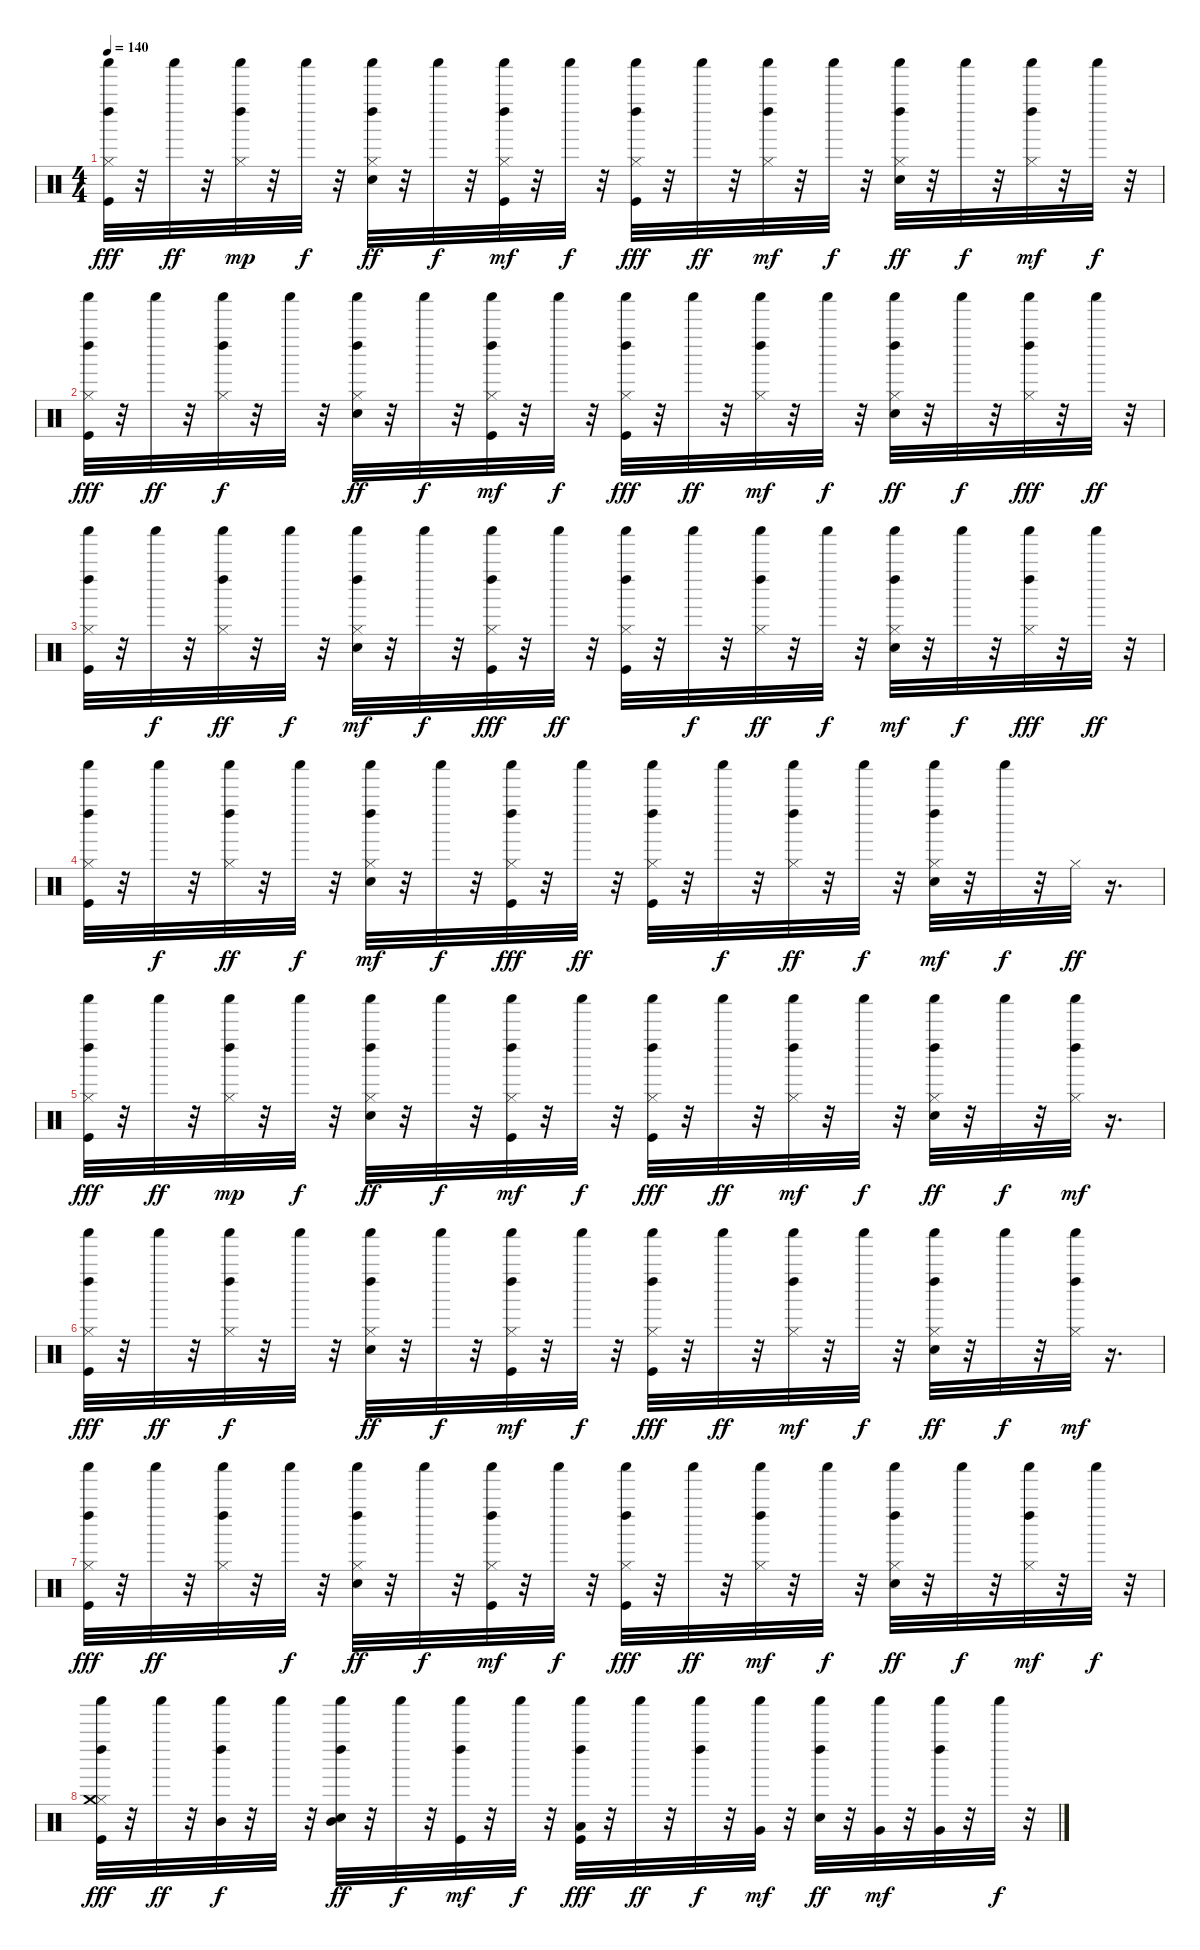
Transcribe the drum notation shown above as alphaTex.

\track "" {instrument percussion}
\staff {score}
\articulation defaults
\ts (4 4)
\tempo 140
\clef neutral
\ks c
("Kick (hit)" "Hi-Hat (closed)" "Left Maraca (hit)" "Shaker (hit)").32{dy fff} r.32 "Shaker (hit)".32{dy ff} r.32 ("Hi-Hat (closed)" "Left Maraca (hit)" "Shaker (hit)").32{dy mp} r.32 "Shaker (hit)".32{dy f} r.32 ("Electric Snare (hit)" "Hi-Hat (closed)" "Left Maraca (hit)" "Shaker (hit)").32{dy ff} r.32 "Shaker (hit)".32{dy f} r.32 ("Kick (hit)" "Hi-Hat (closed)" "Left Maraca (hit)" "Shaker (hit)").32{dy mf} r.32 "Shaker (hit)".32{dy f} r.32 ("Kick (hit)" "Hi-Hat (closed)" "Left Maraca (hit)" "Shaker (hit)").32{dy fff} r.32 "Shaker (hit)".32{dy ff} r.32 ("Hi-Hat (closed)" "Left Maraca (hit)" "Shaker (hit)").32{dy mf} r.32 "Shaker (hit)".32{dy f} r.32 ("Electric Snare (hit)" "Hi-Hat (closed)" "Left Maraca (hit)" "Shaker (hit)").32{dy ff} r.32 "Shaker (hit)".32{dy f} r.32 ("Hi-Hat (closed)" "Left Maraca (hit)" "Shaker (hit)").32{dy mf} r.32 "Shaker (hit)".32{dy f} r.32 |
("Kick (hit)" "Hi-Hat (closed)" "Left Maraca (hit)" "Shaker (hit)").32{dy fff} r.32 "Shaker (hit)".32{dy ff} r.32 ("Hi-Hat (closed)" "Left Maraca (hit)" "Shaker (hit)").32{dy f} r.32 "Shaker (hit)".32 r.32 ("Electric Snare (hit)" "Hi-Hat (closed)" "Left Maraca (hit)" "Shaker (hit)").32{dy ff} r.32 "Shaker (hit)".32{dy f} r.32 ("Kick (hit)" "Hi-Hat (closed)" "Left Maraca (hit)" "Shaker (hit)").32{dy mf} r.32 "Shaker (hit)".32{dy f} r.32 ("Kick (hit)" "Hi-Hat (closed)" "Left Maraca (hit)" "Shaker (hit)").32{dy fff} r.32 "Shaker (hit)".32{dy ff} r.32 ("Hi-Hat (closed)" "Left Maraca (hit)" "Shaker (hit)").32{dy mf} r.32 "Shaker (hit)".32{dy f} r.32 ("Electric Snare (hit)" "Hi-Hat (closed)" "Left Maraca (hit)" "Shaker (hit)").32{dy ff} r.32 "Shaker (hit)".32{dy f} r.32 ("Hi-Hat (closed)" "Left Maraca (hit)" "Shaker (hit)").32{dy fff} r.32 "Shaker (hit)".32{dy ff} r.32 |
("Kick (hit)" "Hi-Hat (closed)" "Left Maraca (hit)" "Shaker (hit)").32 r.32 "Shaker (hit)".32{dy f} r.32 ("Hi-Hat (closed)" "Left Maraca (hit)" "Shaker (hit)").32{dy ff} r.32 "Shaker (hit)".32{dy f} r.32 ("Electric Snare (hit)" "Hi-Hat (closed)" "Left Maraca (hit)" "Shaker (hit)").32{dy mf} r.32 "Shaker (hit)".32{dy f} r.32 ("Kick (hit)" "Hi-Hat (closed)" "Left Maraca (hit)" "Shaker (hit)").32{dy fff} r.32 "Shaker (hit)".32{dy ff} r.32 ("Kick (hit)" "Hi-Hat (closed)" "Left Maraca (hit)" "Shaker (hit)").32 r.32 "Shaker (hit)".32{dy f} r.32 ("Hi-Hat (closed)" "Left Maraca (hit)" "Shaker (hit)").32{dy ff} r.32 "Shaker (hit)".32{dy f} r.32 ("Electric Snare (hit)" "Hi-Hat (closed)" "Left Maraca (hit)" "Shaker (hit)").32{dy mf} r.32 "Shaker (hit)".32{dy f} r.32 ("Hi-Hat (closed)" "Left Maraca (hit)" "Shaker (hit)").32{dy fff} r.32 "Shaker (hit)".32{dy ff} r.32 |
("Kick (hit)" "Hi-Hat (closed)" "Left Maraca (hit)" "Shaker (hit)").32 r.32 "Shaker (hit)".32{dy f} r.32 ("Hi-Hat (closed)" "Left Maraca (hit)" "Shaker (hit)").32{dy ff} r.32 "Shaker (hit)".32{dy f} r.32 ("Electric Snare (hit)" "Hi-Hat (closed)" "Left Maraca (hit)" "Shaker (hit)").32{dy mf} r.32 "Shaker (hit)".32{dy f} r.32 ("Kick (hit)" "Hi-Hat (closed)" "Left Maraca (hit)" "Shaker (hit)").32{dy fff} r.32 "Shaker (hit)".32{dy ff} r.32 ("Kick (hit)" "Hi-Hat (closed)" "Left Maraca (hit)" "Shaker (hit)").32 r.32 "Shaker (hit)".32{dy f} r.32 ("Hi-Hat (closed)" "Left Maraca (hit)" "Shaker (hit)").32{dy ff} r.32 "Shaker (hit)".32{dy f} r.32 ("Electric Snare (hit)" "Hi-Hat (closed)" "Left Maraca (hit)" "Shaker (hit)").32{dy mf} r.32 "Shaker (hit)".32{dy f} r.32 "Hi-Hat (closed)".32{dy ff} r.16{d} |
("Kick (hit)" "Hi-Hat (closed)" "Left Maraca (hit)" "Shaker (hit)").32{dy fff} r.32 "Shaker (hit)".32{dy ff} r.32 ("Hi-Hat (closed)" "Left Maraca (hit)" "Shaker (hit)").32{dy mp} r.32 "Shaker (hit)".32{dy f} r.32 ("Electric Snare (hit)" "Hi-Hat (closed)" "Left Maraca (hit)" "Shaker (hit)").32{dy ff} r.32 "Shaker (hit)".32{dy f} r.32 ("Kick (hit)" "Hi-Hat (closed)" "Left Maraca (hit)" "Shaker (hit)").32{dy mf} r.32 "Shaker (hit)".32{dy f} r.32 ("Kick (hit)" "Hi-Hat (closed)" "Left Maraca (hit)" "Shaker (hit)").32{dy fff} r.32 "Shaker (hit)".32{dy ff} r.32 ("Hi-Hat (closed)" "Left Maraca (hit)" "Shaker (hit)").32{dy mf} r.32 "Shaker (hit)".32{dy f} r.32 ("Electric Snare (hit)" "Hi-Hat (closed)" "Left Maraca (hit)" "Shaker (hit)").32{dy ff} r.32 "Shaker (hit)".32{dy f} r.32 ("Hi-Hat (closed)" "Left Maraca (hit)" "Shaker (hit)").32{dy mf} r.16{d} |
("Kick (hit)" "Hi-Hat (closed)" "Left Maraca (hit)" "Shaker (hit)").32{dy fff} r.32 "Shaker (hit)".32{dy ff} r.32 ("Hi-Hat (closed)" "Left Maraca (hit)" "Shaker (hit)").32{dy f} r.32 "Shaker (hit)".32 r.32 ("Electric Snare (hit)" "Hi-Hat (closed)" "Left Maraca (hit)" "Shaker (hit)").32{dy ff} r.32 "Shaker (hit)".32{dy f} r.32 ("Kick (hit)" "Hi-Hat (closed)" "Left Maraca (hit)" "Shaker (hit)").32{dy mf} r.32 "Shaker (hit)".32{dy f} r.32 ("Kick (hit)" "Hi-Hat (closed)" "Left Maraca (hit)" "Shaker (hit)").32{dy fff} r.32 "Shaker (hit)".32{dy ff} r.32 ("Hi-Hat (closed)" "Left Maraca (hit)" "Shaker (hit)").32{dy mf} r.32 "Shaker (hit)".32{dy f} r.32 ("Electric Snare (hit)" "Hi-Hat (closed)" "Left Maraca (hit)" "Shaker (hit)").32{dy ff} r.32 "Shaker (hit)".32{dy f} r.32 ("Hi-Hat (closed)" "Left Maraca (hit)" "Shaker (hit)").32{dy mf} r.16{d} |
("Kick (hit)" "Hi-Hat (closed)" "Left Maraca (hit)" "Shaker (hit)").32{dy fff} r.32 "Shaker (hit)".32{dy ff} r.32 ("Hi-Hat (closed)" "Left Maraca (hit)" "Shaker (hit)").32 r.32 "Shaker (hit)".32{dy f} r.32 ("Electric Snare (hit)" "Hi-Hat (closed)" "Left Maraca (hit)" "Shaker (hit)").32{dy ff} r.32 "Shaker (hit)".32{dy f} r.32 ("Kick (hit)" "Hi-Hat (closed)" "Left Maraca (hit)" "Shaker (hit)").32{dy mf} r.32 "Shaker (hit)".32{dy f} r.32 ("Kick (hit)" "Hi-Hat (closed)" "Left Maraca (hit)" "Shaker (hit)").32{dy fff} r.32 "Shaker (hit)".32{dy ff} r.32 ("Hi-Hat (closed)" "Left Maraca (hit)" "Shaker (hit)").32{dy mf} r.32 "Shaker (hit)".32{dy f} r.32 ("Electric Snare (hit)" "Hi-Hat (closed)" "Left Maraca (hit)" "Shaker (hit)").32{dy ff} r.32 "Shaker (hit)".32{dy f} r.32 ("Hi-Hat (closed)" "Left Maraca (hit)" "Shaker (hit)").32{dy mf} r.32 "Shaker (hit)".32{dy f} r.32 |
("Kick (hit)" "Hi-Hat (closed)" "Crash medium (hit)" "Left Maraca (hit)" "Shaker (hit)").32{dy fff} r.32 "Shaker (hit)".32{dy ff} r.32 ("Mid Tom (hit)" "Left Maraca (hit)" "Shaker (hit)").32{dy f} r.32 "Shaker (hit)".32 r.32 ("Electric Snare (hit)" "Mid Tom (hit)" "Left Maraca (hit)" "Shaker (hit)").32{dy ff} r.32 "Shaker (hit)".32{dy f} r.32 ("Kick (hit)" "Left Maraca (hit)" "Shaker (hit)").32{dy mf} r.32 "Shaker (hit)".32{dy f} r.32 ("Kick (hit)" "Low Tom (hit)" "Left Maraca (hit)" "Shaker (hit)").32{dy fff} r.32 "Shaker (hit)".32{dy ff} r.32 ("Left Maraca (hit)" "Shaker (hit)").32{dy f} r.32 ("Very Low Tom (hit)" "Shaker (hit)").32{dy mf} r.32 ("Electric Snare (hit)" "Left Maraca (hit)" "Shaker (hit)").32{dy ff} r.32 ("Very Low Tom (hit)" "Shaker (hit)").32{dy mf} r.32 ("Very Low Tom (hit)" "Left Maraca (hit)" "Shaker (hit)").32 r.32 "Shaker (hit)".32{dy f} r.32
